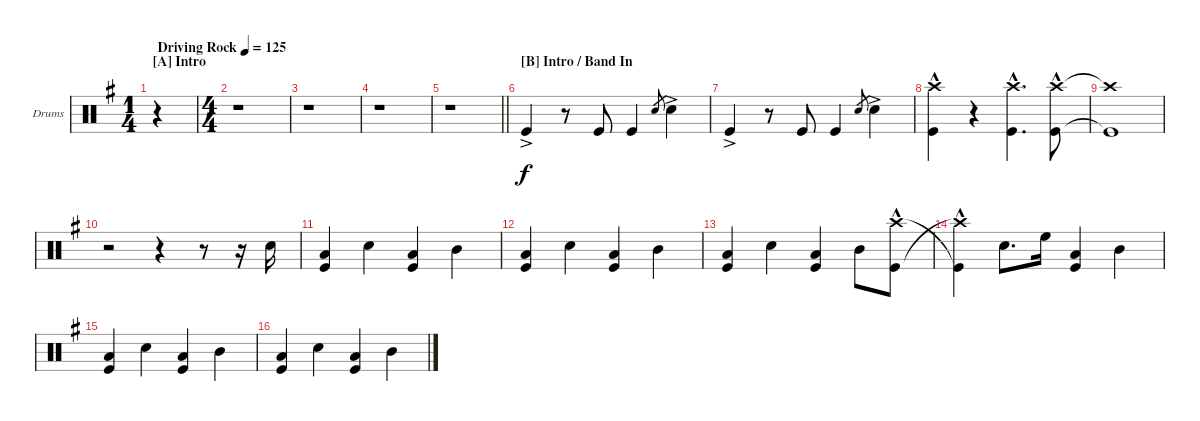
\defaultSystemsLayout 4
\bracketExtendMode groupsimilarinstruments
\firstSystemTrackNameOrientation horizontal
\otherSystemsTrackNameOrientation horizontal
\track ("Mark Cavarzan Drums" "Drums") {instrument percussion}
\staff {score}
\articulation defaults
\ts (1 4)
\section ("A" "Intro")
\tempo (125 "Driving Rock")
\clef neutral
\ks g
r.4{dy f} |
\ts (4 4)
r.1 |
r.1 |
r.1 |
\barLineRight lightlight
r.1 |
\section ("B" "Intro / Band In")
"Kick (hit)"{ac}.4 r.8 "Kick (hit)".8 "Kick (hit)".4 "Snare (hit) 2".8{gr} "Snare (hit) 2"{ac}.4 |
"Kick (hit)"{ac}.4 r.8 "Kick (hit)".8 "Kick (hit)".4 "Snare (hit) 2".8{gr} "Snare (hit) 2"{ac}.4 |
("Crash high (hit)"{hac} "Kick (hit)"{hac}).4 r.4 ("Kick (hit)"{hac} "Crash high (hit)"{hac}).4{d} ("Crash high (hit)"{hac} "Kick (hit)"{hac}).8 |
("Crash high (hit)"{t} "Kick (hit)"{t}).1 |
r.2 r.4 r.8 r.16 "Snare (hit) 2".16 |
("Kick (hit)" "Low Tom (hit)").4 "Snare (hit) 2".4 ("Low Tom (hit)" "Kick (hit)").4 "Mid Tom (hit)".4 |
("Kick (hit)" "Low Tom (hit)").4 "Snare (hit) 2".4 ("Low Tom (hit)" "Kick (hit)").4 "Mid Tom (hit)".4 |
("Kick (hit)" "Low Tom (hit)").4 "Snare (hit) 2".4 ("Low Tom (hit)" "Kick (hit)").4 "Mid Tom (hit)".8 ("Kick (hit)"{hac} "Crash high (hit)"{hac}).8 |
("Crash high (hit)"{hac t} "Kick (hit)"{hac t}).4 "Snare (hit) 2".8{d} "High Floor Tom (hit)".16 ("Low Tom (hit)" "Kick (hit)").4 "Mid Tom (hit)".4 |
("Kick (hit)" "Low Tom (hit)").4 "Snare (hit) 2".4 ("Low Tom (hit)" "Kick (hit)").4 "Mid Tom (hit)".4 |
("Kick (hit)" "Low Tom (hit)").4 "Snare (hit) 2".4 ("Low Tom (hit)" "Kick (hit)").4 "Mid Tom (hit)".4
